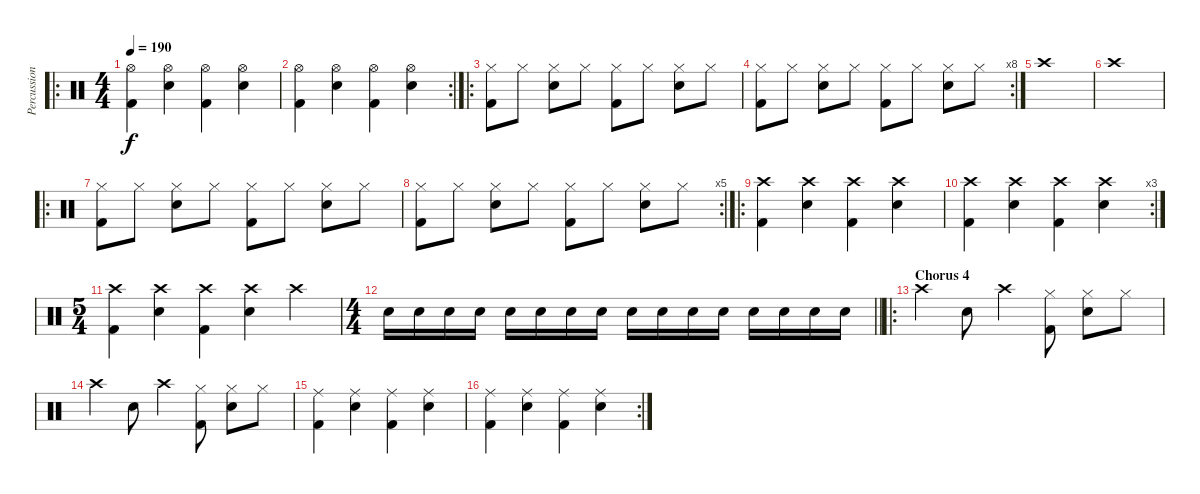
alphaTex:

\track ("Percussion" "Percussion") {instrument percussion}
\staff {score}
\articulation defaults
\ro
\ts (4 4)
\tempo 190
\clef neutral
\ks c
("Hi-Hat (open)" "Kick (hit) 2").4{dy f} ("Hi-Hat (open)" "Snare (hit) 2").4 ("Hi-Hat (open)" "Kick (hit) 2").4 ("Hi-Hat (open)" "Snare (hit) 2").4 |
\rc 2
("Hi-Hat (open)" "Kick (hit) 2").4 ("Hi-Hat (open)" "Snare (hit) 2").4 ("Hi-Hat (open)" "Kick (hit) 2").4 ("Hi-Hat (open)" "Snare (hit) 2").4 |
\ro
("Hi-Hat (closed)" "Kick (hit) 2").8 "Hi-Hat (closed)".8 ("Hi-Hat (closed)" "Snare (hit) 2").8 "Hi-Hat (closed)".8 ("Hi-Hat (closed)" "Kick (hit) 2").8 "Hi-Hat (closed)".8 ("Hi-Hat (closed)" "Snare (hit) 2").8 "Hi-Hat (closed)".8 |
\rc 8
("Hi-Hat (closed)" "Kick (hit) 2").8 "Hi-Hat (closed)".8 ("Hi-Hat (closed)" "Snare (hit) 2").8 "Hi-Hat (closed)".8 ("Hi-Hat (closed)" "Kick (hit) 2").8 "Hi-Hat (closed)".8 ("Hi-Hat (closed)" "Snare (hit) 2").8 "Hi-Hat (closed)".8 |
"Crash high (hit)".1 |
"Crash high (hit)".1 |
\ro
("Hi-Hat (closed)" "Kick (hit) 2").8 "Hi-Hat (closed)".8 ("Hi-Hat (closed)" "Snare (hit) 2").8 "Hi-Hat (closed)".8 ("Hi-Hat (closed)" "Kick (hit) 2").8 "Hi-Hat (closed)".8 ("Hi-Hat (closed)" "Snare (hit) 2").8 "Hi-Hat (closed)".8 |
\rc 5
("Hi-Hat (closed)" "Kick (hit) 2").8 "Hi-Hat (closed)".8 ("Hi-Hat (closed)" "Snare (hit) 2").8 "Hi-Hat (closed)".8 ("Hi-Hat (closed)" "Kick (hit) 2").8 "Hi-Hat (closed)".8 ("Hi-Hat (closed)" "Snare (hit) 2").8 "Hi-Hat (closed)".8 |
\ro
("Crash high (hit)" "Kick (hit) 2").4 ("Crash high (hit)" "Snare (hit) 2").4 ("Crash high (hit)" "Kick (hit) 2").4 ("Crash high (hit)" "Snare (hit) 2").4 |
\rc 3
("Crash high (hit)" "Kick (hit) 2").4 ("Crash high (hit)" "Snare (hit) 2").4 ("Crash high (hit)" "Kick (hit) 2").4 ("Crash high (hit)" "Snare (hit) 2").4 |
\ts (5 4)
("Crash high (hit)" "Kick (hit) 2").4 ("Crash high (hit)" "Snare (hit) 2").4 ("Crash high (hit)" "Kick (hit) 2").4 ("Crash high (hit)" "Snare (hit) 2").4 "Crash high (hit)".4 |
\ts (4 4)
\barLineRight lightlight "Snare (hit) 2".16 "Snare (hit) 2".16 "Snare (hit) 2".16 "Snare (hit) 2".16 "Snare (hit) 2".16 "Snare (hit) 2".16 "Snare (hit) 2".16 "Snare (hit) 2".16 "Snare (hit) 2".16 "Snare (hit) 2".16 "Snare (hit) 2".16 "Snare (hit) 2".16 "Snare (hit) 2".16 "Snare (hit) 2".16 "Snare (hit) 2".16 "Snare (hit) 2".16
|
\ro
\section ("" "Chorus 4")
"Crash high (hit)".4 "Snare (hit) 2".8 "Crash high (hit)".4 ("Hi-Hat (closed)" "Kick (hit) 2").8 ("Hi-Hat (closed)" "Snare (hit) 2").8 "Hi-Hat (closed)".8 |
"Crash high (hit)".4 "Snare (hit) 2".8 "Crash high (hit)".4 ("Hi-Hat (closed)" "Kick (hit) 2").8 ("Hi-Hat (closed)" "Snare (hit) 2").8 "Hi-Hat (closed)".8 |
("Ride (middle)" "Kick (hit) 2").4 ("Ride (middle)" "Snare (hit) 2").4 ("Ride (middle)" "Kick (hit) 2").4 ("Ride (middle)" "Snare (hit) 2").4 |
\rc 2
("Ride (middle)" "Kick (hit) 2").4 ("Ride (middle)" "Snare (hit) 2").4 ("Ride (middle)" "Kick (hit) 2").4 ("Ride (middle)" "Snare (hit) 2").4
